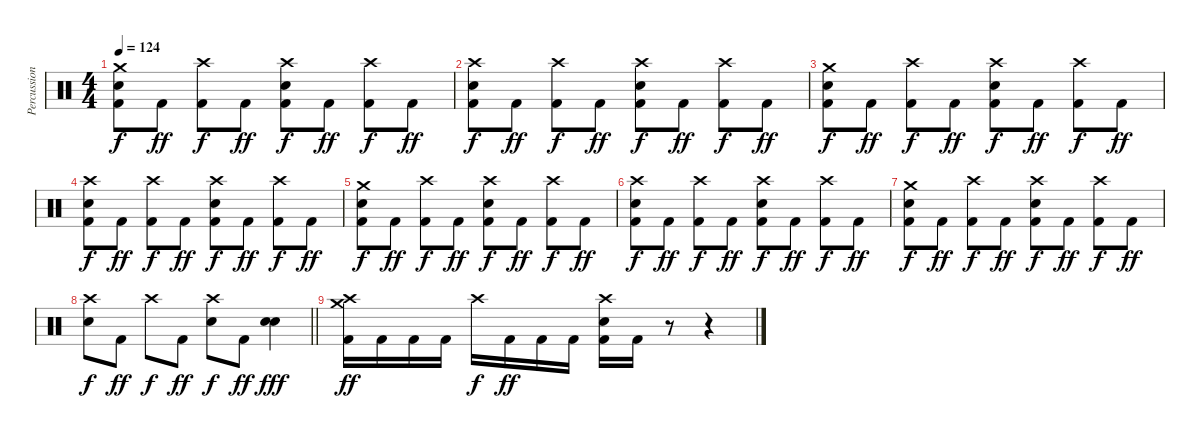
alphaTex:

\track ("Percussion" "Percussion") {instrument percussion}
\staff {score}
\articulation defaults
\ts (4 4)
\tempo 124
\clef neutral
\ks c
("Crash medium (hit)" "Electric Snare (hit)" "Kick (hit) 2").8{dy f} "Kick (hit) 2".8{dy ff} ("Crash high (hit)" "Kick (hit) 2").8{dy f} "Kick (hit) 2".8{dy ff} ("Crash high (hit)" "Electric Snare (hit)" "Kick (hit) 2").8{dy f} "Kick (hit) 2".8{dy ff} ("Crash high (hit)" "Kick (hit) 2").8{dy f} "Kick (hit) 2".8{dy ff} |
("Crash high (hit)" "Electric Snare (hit)" "Kick (hit) 2").8{dy f} "Kick (hit) 2".8{dy ff} ("Crash high (hit)" "Kick (hit) 2").8{dy f} "Kick (hit) 2".8{dy ff} ("Crash high (hit)" "Electric Snare (hit)" "Kick (hit) 2").8{dy f} "Kick (hit) 2".8{dy ff} ("Crash high (hit)" "Kick (hit) 2").8{dy f} "Kick (hit) 2".8{dy ff} |
("Crash medium (hit)" "Electric Snare (hit)" "Kick (hit) 2").8{dy f} "Kick (hit) 2".8{dy ff} ("Crash high (hit)" "Kick (hit) 2").8{dy f} "Kick (hit) 2".8{dy ff} ("Crash high (hit)" "Electric Snare (hit)" "Kick (hit) 2").8{dy f} "Kick (hit) 2".8{dy ff} ("Crash high (hit)" "Kick (hit) 2").8{dy f} "Kick (hit) 2".8{dy ff} |
("Crash high (hit)" "Electric Snare (hit)" "Kick (hit) 2").8{dy f} "Kick (hit) 2".8{dy ff} ("Crash high (hit)" "Kick (hit) 2").8{dy f} "Kick (hit) 2".8{dy ff} ("Crash high (hit)" "Electric Snare (hit)" "Kick (hit) 2").8{dy f} "Kick (hit) 2".8{dy ff} ("Crash high (hit)" "Kick (hit) 2").8{dy f} "Kick (hit) 2".8{dy ff} |
("Crash medium (hit)" "Electric Snare (hit)" "Kick (hit) 2").8{dy f} "Kick (hit) 2".8{dy ff} ("Crash high (hit)" "Kick (hit) 2").8{dy f} "Kick (hit) 2".8{dy ff} ("Crash high (hit)" "Electric Snare (hit)" "Kick (hit) 2").8{dy f} "Kick (hit) 2".8{dy ff} ("Crash high (hit)" "Kick (hit) 2").8{dy f} "Kick (hit) 2".8{dy ff} |
("Crash high (hit)" "Electric Snare (hit)" "Kick (hit) 2").8{dy f} "Kick (hit) 2".8{dy ff} ("Crash high (hit)" "Kick (hit) 2").8{dy f} "Kick (hit) 2".8{dy ff} ("Crash high (hit)" "Electric Snare (hit)" "Kick (hit) 2").8{dy f} "Kick (hit) 2".8{dy ff} ("Crash high (hit)" "Kick (hit) 2").8{dy f} "Kick (hit) 2".8{dy ff} |
("Crash medium (hit)" "Electric Snare (hit)" "Kick (hit) 2").8{dy f} "Kick (hit) 2".8{dy ff} ("Crash high (hit)" "Kick (hit) 2").8{dy f} "Kick (hit) 2".8{dy ff} ("Crash high (hit)" "Electric Snare (hit)" "Kick (hit) 2").8{dy f} "Kick (hit) 2".8{dy ff} ("Crash high (hit)" "Kick (hit) 2").8{dy f} "Kick (hit) 2".8{dy ff} |
\barLineRight lightlight
("Crash high (hit)" "Electric Snare (hit)").8{dy f} "Kick (hit) 2".8{dy ff} "Crash high (hit)".8{dy f} "Kick (hit) 2".8{dy ff} ("Crash high (hit)" "Electric Snare (hit)").8{dy f} "Kick (hit) 2".8{dy ff} ("Electric Snare (hit)" "Electric Snare (hit)").4{dy fff} |
("Crash medium (hit)" "Crash high (hit)" "Kick (hit) 2").16{dy ff} "Kick (hit) 2".16 "Kick (hit) 2".16 "Kick (hit) 2".16 "Crash high (hit)".16{dy f} "Kick (hit) 2".16{dy ff} "Kick (hit) 2".16 "Kick (hit) 2".16 ("Crash high (hit)" "Electric Snare (hit)" "Kick (hit) 2").16 "Kick (hit) 2".16 r.8{volume 0} r.4
